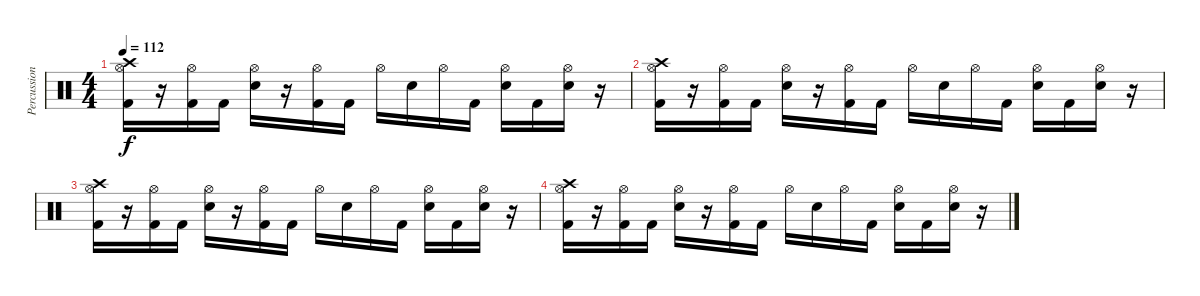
\track ("Percussion" "Percussion") {instrument percussion}
\staff {score}
\articulation defaults
\ts (4 4)
\tempo 112
\clef neutral
\ks c
("Kick (hit) 2" "Hi-Hat (open)" "Crash high (hit)").16{dy f} r.16 ("Kick (hit) 2" "Hi-Hat (open)").16 "Kick (hit) 2".16 ("Snare (hit) 2" "Hi-Hat (open)").16 r.16 ("Kick (hit) 2" "Hi-Hat (open)").16 "Kick (hit) 2".16 "Hi-Hat (open)".16 "Snare (hit) 2".16 "Hi-Hat (open)".16 "Kick (hit) 2".16 ("Snare (hit) 2" "Hi-Hat (open)").16 "Kick (hit) 2".16 ("Snare (hit) 2" "Hi-Hat (open)").16 r.16 |
("Kick (hit) 2" "Hi-Hat (open)" "Crash high (hit)").16 r.16 ("Kick (hit) 2" "Hi-Hat (open)").16 "Kick (hit) 2".16 ("Snare (hit) 2" "Hi-Hat (open)").16 r.16 ("Kick (hit) 2" "Hi-Hat (open)").16 "Kick (hit) 2".16 "Hi-Hat (open)".16 "Snare (hit) 2".16 "Hi-Hat (open)".16 "Kick (hit) 2".16 ("Snare (hit) 2" "Hi-Hat (open)").16 "Kick (hit) 2".16 ("Snare (hit) 2" "Hi-Hat (open)").16 r.16 |
("Kick (hit) 2" "Hi-Hat (open)" "Crash high (hit)").16 r.16 ("Kick (hit) 2" "Hi-Hat (open)").16 "Kick (hit) 2".16 ("Snare (hit) 2" "Hi-Hat (open)").16 r.16 ("Kick (hit) 2" "Hi-Hat (open)").16 "Kick (hit) 2".16 "Hi-Hat (open)".16 "Snare (hit) 2".16 "Hi-Hat (open)".16 "Kick (hit) 2".16 ("Snare (hit) 2" "Hi-Hat (open)").16 "Kick (hit) 2".16 ("Snare (hit) 2" "Hi-Hat (open)").16 r.16 |
("Kick (hit) 2" "Hi-Hat (open)" "Crash high (hit)").16 r.16 ("Kick (hit) 2" "Hi-Hat (open)").16 "Kick (hit) 2".16 ("Snare (hit) 2" "Hi-Hat (open)").16 r.16 ("Kick (hit) 2" "Hi-Hat (open)").16 "Kick (hit) 2".16 "Hi-Hat (open)".16 "Snare (hit) 2".16 "Hi-Hat (open)".16 "Kick (hit) 2".16 ("Snare (hit) 2" "Hi-Hat (open)").16 "Kick (hit) 2".16 ("Snare (hit) 2" "Hi-Hat (open)").16 r.16
